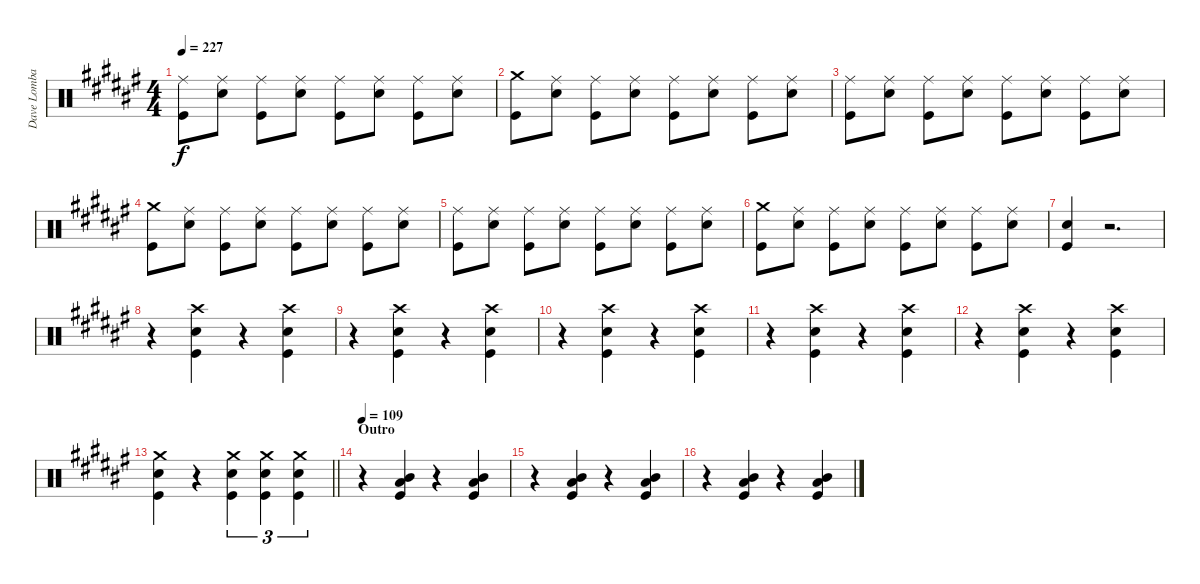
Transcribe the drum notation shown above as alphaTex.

\track ("Dave Lombardo" "Dave Lomba") {instrument percussion}
\staff {score}
\articulation defaults
\ts (4 4)
\tempo 227
\clef neutral
\ks f#
("Ride (middle)" "Kick (hit)").8{dy f} ("Ride (middle)" "Snare (hit) 2").8 ("Ride (middle)" "Kick (hit)").8 ("Ride (middle)" "Snare (hit) 2").8 ("Ride (middle)" "Kick (hit)").8 ("Ride (middle)" "Snare (hit) 2").8 ("Ride (middle)" "Kick (hit)").8 ("Ride (middle)" "Snare (hit) 2").8 |
("Crash medium (hit)" "Kick (hit)").8 ("Ride (middle)" "Snare (hit) 2").8 ("Ride (middle)" "Kick (hit)").8 ("Ride (middle)" "Snare (hit) 2").8 ("Ride (middle)" "Kick (hit)").8 ("Ride (middle)" "Snare (hit) 2").8 ("Ride (middle)" "Kick (hit)").8 ("Ride (middle)" "Snare (hit) 2").8 |
("Ride (middle)" "Kick (hit)").8 ("Ride (middle)" "Snare (hit) 2").8 ("Ride (middle)" "Kick (hit)").8 ("Ride (middle)" "Snare (hit) 2").8 ("Ride (middle)" "Kick (hit)").8 ("Ride (middle)" "Snare (hit) 2").8 ("Ride (middle)" "Kick (hit)").8 ("Ride (middle)" "Snare (hit) 2").8 |
("Crash medium (hit)" "Kick (hit)").8 ("Ride (middle)" "Snare (hit) 2").8 ("Ride (middle)" "Kick (hit)").8 ("Ride (middle)" "Snare (hit) 2").8 ("Ride (middle)" "Kick (hit)").8 ("Ride (middle)" "Snare (hit) 2").8 ("Ride (middle)" "Kick (hit)").8 ("Ride (middle)" "Snare (hit) 2").8 |
("Ride (middle)" "Kick (hit)").8 ("Ride (middle)" "Snare (hit) 2").8 ("Ride (middle)" "Kick (hit)").8 ("Ride (middle)" "Snare (hit) 2").8 ("Ride (middle)" "Kick (hit)").8 ("Ride (middle)" "Snare (hit) 2").8 ("Ride (middle)" "Kick (hit)").8 ("Ride (middle)" "Snare (hit) 2").8 |
("Crash medium (hit)" "Kick (hit)").8 ("Ride (middle)" "Snare (hit) 2").8 ("Ride (middle)" "Kick (hit)").8 ("Ride (middle)" "Snare (hit) 2").8 ("Ride (middle)" "Kick (hit)").8 ("Ride (middle)" "Snare (hit) 2").8 ("Ride (middle)" "Kick (hit)").8 ("Ride (middle)" "Snare (hit) 2").8 |
("Snare (hit) 2" "Kick (hit)").4 r.2{d} |
r.4 ("Crash high (hit)" "Snare (hit) 2" "Kick (hit)").4 r.4 ("Crash high (hit)" "Snare (hit) 2" "Kick (hit)").4 |
r.4 ("Crash high (hit)" "Snare (hit) 2" "Kick (hit)").4 r.4 ("Crash high (hit)" "Snare (hit) 2" "Kick (hit)").4 |
r.4 ("Crash high (hit)" "Snare (hit) 2" "Kick (hit)").4 r.4 ("Crash high (hit)" "Snare (hit) 2" "Kick (hit)").4 |
r.4 ("Crash high (hit)" "Snare (hit) 2" "Kick (hit)").4 r.4 ("Crash high (hit)" "Snare (hit) 2" "Kick (hit)").4 |
r.4 ("Crash high (hit)" "Snare (hit) 2" "Kick (hit)").4 r.4 ("Crash high (hit)" "Snare (hit) 2" "Kick (hit)").4 |
\barLineRight lightlight
("Crash medium (hit)" "Snare (hit) 2" "Kick (hit)").4 r.4 ("Crash medium (hit)" "Snare (hit) 2" "Kick (hit)").4{tu (3 2)} ("Crash medium (hit)" "Snare (hit) 2" "Kick (hit)").4{tu (3 2)} ("Crash medium (hit)" "Snare (hit) 2" "Kick (hit)").4{tu (3 2)} |
\section ("" "Outro")
\tempo 109
r.4 ("Mid Tom (hit)" "Low Tom (hit)" "Kick (hit)").4 r.4 ("Mid Tom (hit)" "Low Tom (hit)" "Kick (hit)").4 |
r.4 ("Mid Tom (hit)" "Low Tom (hit)" "Kick (hit)").4 r.4 ("Mid Tom (hit)" "Low Tom (hit)" "Kick (hit)").4 |
r.4 ("Mid Tom (hit)" "Low Tom (hit)" "Kick (hit)").4 r.4 ("Mid Tom (hit)" "Low Tom (hit)" "Kick (hit)").4
